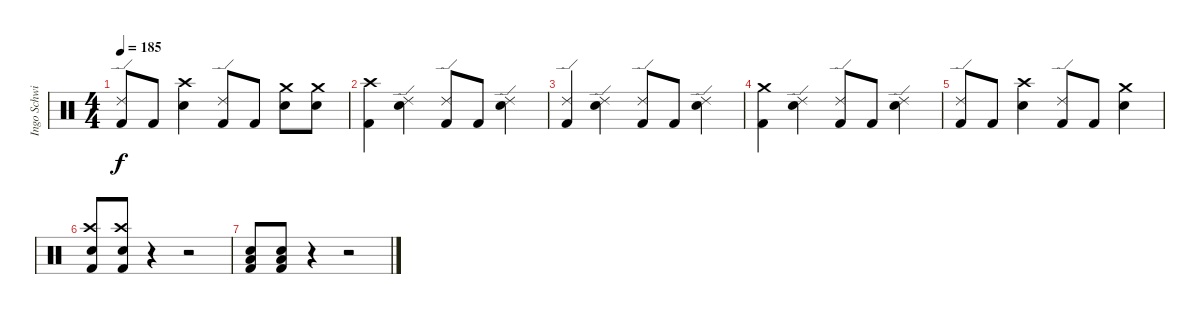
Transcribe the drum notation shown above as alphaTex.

\track ("Ingo Schwischtenberg" "Ingo Schwi") {instrument percussion}
\staff {score}
\articulation defaults
\ts (4 4)
\tempo 185
\clef neutral
\ks c
("Ride (edge) 2" "Kick (hit) 2").8{dy f} "Kick (hit) 2".8 ("Crash high (hit)" "Electric Snare (hit)").4 ("Ride (edge) 2" "Kick (hit) 2").8 "Kick (hit) 2".8 ("Crash medium (hit)" "Electric Snare (hit)").8 ("Crash medium (hit)" "Electric Snare (hit)").8 |
("Crash high (hit)" "Kick (hit) 2").4 ("Ride (edge) 2" "Electric Snare (hit)").4 ("Ride (edge) 2" "Kick (hit) 2").8 "Kick (hit) 2".8 ("Ride (edge) 2" "Electric Snare (hit)").4 |
("Ride (edge) 2" "Kick (hit) 2").4 ("Ride (edge) 2" "Electric Snare (hit)").4 ("Ride (edge) 2" "Kick (hit) 2").8 "Kick (hit) 2".8 ("Ride (edge) 2" "Electric Snare (hit)").4 |
("Crash medium (hit)" "Kick (hit) 2").4 ("Ride (edge) 2" "Electric Snare (hit)").4 ("Ride (edge) 2" "Kick (hit) 2").8 "Kick (hit) 2".8 ("Ride (edge) 2" "Electric Snare (hit)").4 |
("Ride (edge) 2" "Kick (hit) 2").8 "Kick (hit) 2".8 ("Crash high (hit)" "Electric Snare (hit)").4 ("Ride (edge) 2" "Kick (hit) 2").8 "Kick (hit) 2".8 ("Crash medium (hit)" "Electric Snare (hit)").4 |
("Crash high (hit)" "Electric Snare (hit)" "Kick (hit) 2").8 ("Crash high (hit)" "Electric Snare (hit)" "Kick (hit) 2").8 r.4 r.2 |
("Electric Snare (hit)" "Low Floor Tom (hit)" "Kick (hit) 2").8 ("Electric Snare (hit)" "Low Floor Tom (hit)" "Kick (hit) 2").8 r.4 r.2
